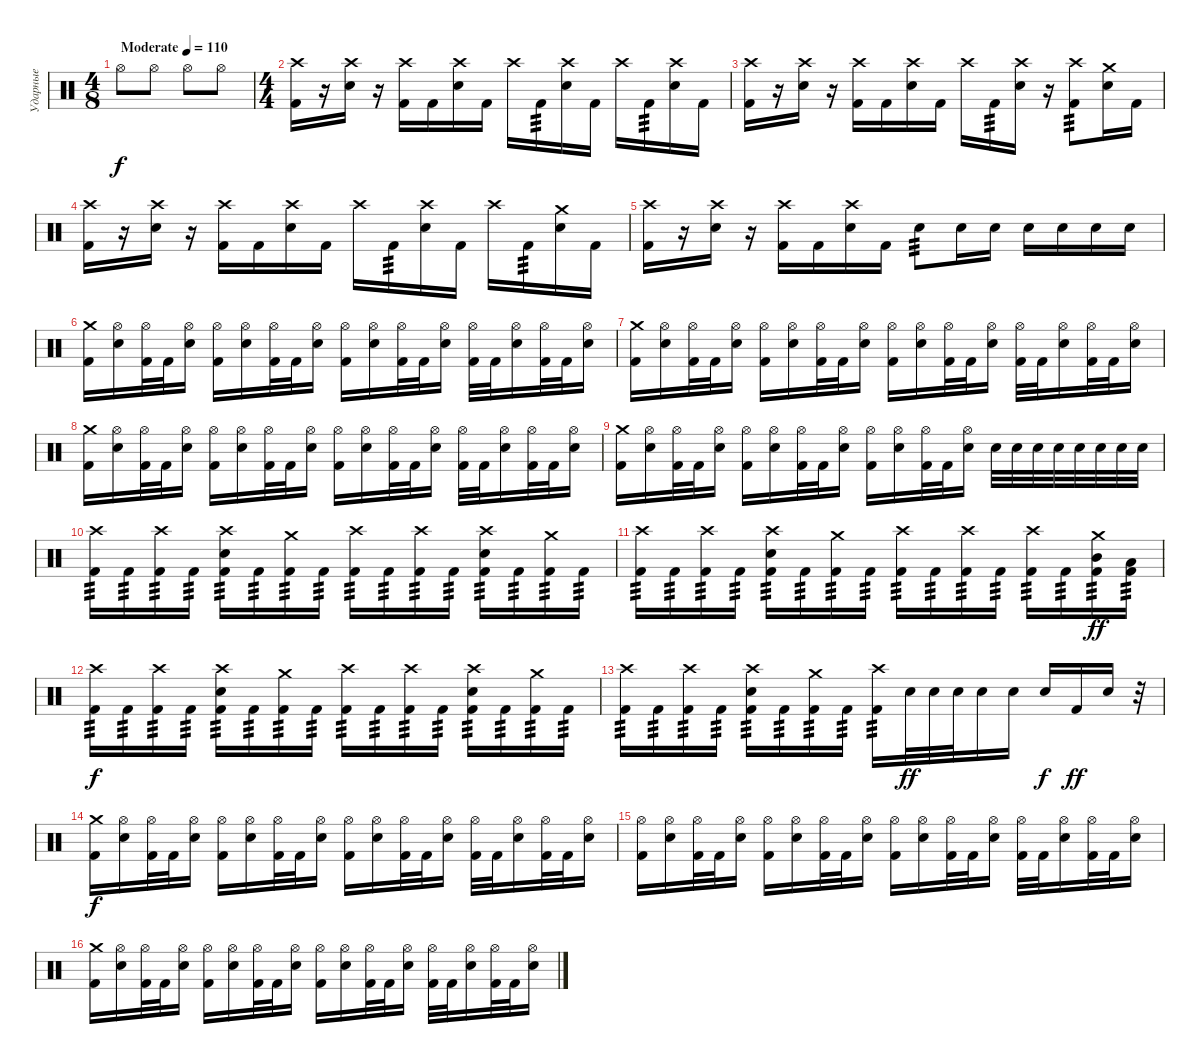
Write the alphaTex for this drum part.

\track ("Ударные" "Ударные") {instrument percussion}
\staff {score}
\articulation defaults
\ts (4 8)
\tempo (110 "Moderate")
\clef neutral
\ks c "Hi-Hat (open)".8{dy f} "Hi-Hat (open)".8 "Hi-Hat (open)".8 "Hi-Hat (open)".8
|
\ts (4 4)
("Crash high (hit)" "Kick (hit) 2").16 r.16 ("Crash high (hit)" "Snare (hit) 2").16 r.16 ("Crash high (hit)" "Kick (hit) 2").16 "Kick (hit) 2".16 ("Crash high (hit)" "Snare (hit) 2").16 "Kick (hit) 2".16 "Crash high (hit)".16 "Kick (hit) 2".16{tp 3} ("Crash high (hit)" "Snare (hit) 2").16 "Kick (hit) 2".16 "Crash high (hit)".16 "Kick (hit) 2".16{tp 3} ("Crash high (hit)" "Snare (hit) 2").16 "Kick (hit) 2".16 |
("Crash high (hit)" "Kick (hit) 2").16 r.16 ("Crash high (hit)" "Snare (hit) 2").16 r.16 ("Crash high (hit)" "Kick (hit) 2").16 "Kick (hit) 2".16 ("Crash high (hit)" "Snare (hit) 2").16 "Kick (hit) 2".16 "Crash high (hit)".16 "Kick (hit) 2".16{tp 3} ("Crash high (hit)" "Snare (hit) 2").16 r.16 ("Crash high (hit)" "Kick (hit) 2").8{tp 3} ("Crash medium (hit)" "Snare (hit) 2").16 "Kick (hit) 2".16 |
("Crash high (hit)" "Kick (hit) 2").16 r.16 ("Crash high (hit)" "Snare (hit) 2").16 r.16 ("Crash high (hit)" "Kick (hit) 2").16 "Kick (hit) 2".16 ("Crash high (hit)" "Snare (hit) 2").16 "Kick (hit) 2".16 "Crash high (hit)".16 "Kick (hit) 2".16{tp 3} ("Crash high (hit)" "Snare (hit) 2").16 "Kick (hit) 2".16 "Crash high (hit)".16 "Kick (hit) 2".16{tp 3} ("Crash medium (hit)" "Snare (hit) 2").16 "Kick (hit) 2".16 |
("Crash high (hit)" "Kick (hit) 2").16 r.16 ("Crash high (hit)" "Snare (hit) 2").16 r.16 ("Crash high (hit)" "Kick (hit) 2").16 "Kick (hit) 2".16 ("Crash high (hit)" "Snare (hit) 2").16 "Kick (hit) 2".16 "Snare (hit) 2".8{tp 3} "Snare (hit) 2".16 "Snare (hit) 2".16 "Snare (hit) 2".16 "Snare (hit) 2".16 "Snare (hit) 2".16 "Snare (hit) 2".16 |
("Crash medium (hit)" "Kick (hit) 2").16 ("Hi-Hat (open)" "Snare (hit) 2").16 ("Hi-Hat (open)" "Kick (hit) 2").32 "Kick (hit) 2".32 ("Hi-Hat (open)" "Snare (hit) 2").16 ("Hi-Hat (open)" "Kick (hit) 2").16 ("Hi-Hat (open)" "Snare (hit) 2").16 ("Hi-Hat (open)" "Kick (hit) 2").32 "Kick (hit) 2".32 ("Hi-Hat (open)" "Snare (hit) 2").16 ("Hi-Hat (open)" "Kick (hit) 2").16 ("Hi-Hat (open)" "Snare (hit) 2").16 ("Hi-Hat (open)" "Kick (hit) 2").32 "Kick (hit) 2".32 ("Hi-Hat (open)" "Snare (hit) 2").16 ("Hi-Hat (open)" "Kick (hit) 2").32 "Kick (hit) 2".32 ("Hi-Hat (open)" "Snare (hit) 2").16 ("Hi-Hat (open)" "Kick (hit) 2").32 "Kick (hit) 2".32 ("Hi-Hat (open)" "Snare (hit) 2").16 |
("Crash medium (hit)" "Kick (hit) 2").16 ("Hi-Hat (open)" "Snare (hit) 2").16 ("Hi-Hat (open)" "Kick (hit) 2").32 "Kick (hit) 2".32 ("Hi-Hat (open)" "Snare (hit) 2").16 ("Hi-Hat (open)" "Kick (hit) 2").16 ("Hi-Hat (open)" "Snare (hit) 2").16 ("Hi-Hat (open)" "Kick (hit) 2").32 "Kick (hit) 2".32 ("Hi-Hat (open)" "Snare (hit) 2").16 ("Hi-Hat (open)" "Kick (hit) 2").16 ("Hi-Hat (open)" "Snare (hit) 2").16 ("Hi-Hat (open)" "Kick (hit) 2").32 "Kick (hit) 2".32 ("Hi-Hat (open)" "Snare (hit) 2").16 ("Hi-Hat (open)" "Kick (hit) 2").32 "Kick (hit) 2".32 ("Hi-Hat (open)" "Snare (hit) 2").16 ("Hi-Hat (open)" "Kick (hit) 2").32 "Kick (hit) 2".32 ("Hi-Hat (open)" "Snare (hit) 2").16 |
("Crash medium (hit)" "Kick (hit) 2").16 ("Hi-Hat (open)" "Snare (hit) 2").16 ("Hi-Hat (open)" "Kick (hit) 2").32 "Kick (hit) 2".32 ("Hi-Hat (open)" "Snare (hit) 2").16 ("Hi-Hat (open)" "Kick (hit) 2").16 ("Hi-Hat (open)" "Snare (hit) 2").16 ("Hi-Hat (open)" "Kick (hit) 2").32 "Kick (hit) 2".32 ("Hi-Hat (open)" "Snare (hit) 2").16 ("Hi-Hat (open)" "Kick (hit) 2").16 ("Hi-Hat (open)" "Snare (hit) 2").16 ("Hi-Hat (open)" "Kick (hit) 2").32 "Kick (hit) 2".32 ("Hi-Hat (open)" "Snare (hit) 2").16 ("Hi-Hat (open)" "Kick (hit) 2").32 "Kick (hit) 2".32 ("Hi-Hat (open)" "Snare (hit) 2").16 ("Hi-Hat (open)" "Kick (hit) 2").32 "Kick (hit) 2".32 ("Hi-Hat (open)" "Snare (hit) 2").16 |
("Crash medium (hit)" "Kick (hit) 2").16 ("Hi-Hat (open)" "Snare (hit) 2").16 ("Hi-Hat (open)" "Kick (hit) 2").32 "Kick (hit) 2".32 ("Hi-Hat (open)" "Snare (hit) 2").16 ("Hi-Hat (open)" "Kick (hit) 2").16 ("Hi-Hat (open)" "Snare (hit) 2").16 ("Hi-Hat (open)" "Kick (hit) 2").32 "Kick (hit) 2".32 ("Hi-Hat (open)" "Snare (hit) 2").16 ("Hi-Hat (open)" "Kick (hit) 2").16 ("Hi-Hat (open)" "Snare (hit) 2").16 ("Hi-Hat (open)" "Kick (hit) 2").32 "Kick (hit) 2".32 ("Hi-Hat (open)" "Snare (hit) 2").16 "Snare (hit) 2".32 "Snare (hit) 2".32 "Snare (hit) 2".32 "Snare (hit) 2".32 "Snare (hit) 2".32 "Snare (hit) 2".32 "Snare (hit) 2".32 "Snare (hit) 2".32 |
("Crash high (hit)" "Kick (hit) 2").16{tp 3} "Kick (hit) 2".16{tp 3} ("Crash high (hit)" "Kick (hit) 2").16{tp 3} "Kick (hit) 2".16{tp 3} ("Crash high (hit)" "Snare (hit) 2" "Kick (hit) 2").16{tp 3} "Kick (hit) 2".16{tp 3} ("Crash medium (hit)" "Kick (hit) 2").16{tp 3} "Kick (hit) 2".16{tp 3} ("Crash high (hit)" "Kick (hit) 2").16{tp 3} "Kick (hit) 2".16{tp 3} ("Crash high (hit)" "Kick (hit) 2").16{tp 3} "Kick (hit) 2".16{tp 3} ("Crash high (hit)" "Snare (hit) 2" "Kick (hit) 2").16{tp 3} "Kick (hit) 2".16{tp 3} ("Crash medium (hit)" "Kick (hit) 2").16{tp 3} "Kick (hit) 2".16{tp 3} |
("Crash high (hit)" "Kick (hit) 2").16{tp 3} "Kick (hit) 2".16{tp 3} ("Crash high (hit)" "Kick (hit) 2").16{tp 3} "Kick (hit) 2".16{tp 3} ("Crash high (hit)" "Snare (hit) 2" "Kick (hit) 2").16{tp 3} "Kick (hit) 2".16{tp 3} ("Crash medium (hit)" "Kick (hit) 2").16{tp 3} "Kick (hit) 2".16{tp 3} ("Crash high (hit)" "Kick (hit) 2").16{tp 3} "Kick (hit) 2".16{tp 3} ("Crash high (hit)" "Kick (hit) 2").16{tp 3} "Kick (hit) 2".16{tp 3} ("Crash high (hit)" "Kick (hit) 2").16{tp 3} "Kick (hit) 2".16{tp 3} ("Crash medium (hit)" "Mid Tom (hit)" "Kick (hit) 2").16{tp 3 dy ff} ("Low Tom (hit)" "Kick (hit) 2").16{tp 3} |
("Crash high (hit)" "Kick (hit) 2").16{tp 3 dy f} "Kick (hit) 2".16{tp 3} ("Crash high (hit)" "Kick (hit) 2").16{tp 3} "Kick (hit) 2".16{tp 3} ("Crash high (hit)" "Snare (hit) 2" "Kick (hit) 2").16{tp 3} "Kick (hit) 2".16{tp 3} ("Crash medium (hit)" "Kick (hit) 2").16{tp 3} "Kick (hit) 2".16{tp 3} ("Crash high (hit)" "Kick (hit) 2").16{tp 3} "Kick (hit) 2".16{tp 3} ("Crash high (hit)" "Kick (hit) 2").16{tp 3} "Kick (hit) 2".16{tp 3} ("Crash high (hit)" "Snare (hit) 2" "Kick (hit) 2").16{tp 3} "Kick (hit) 2".16{tp 3} ("Crash medium (hit)" "Kick (hit) 2").16{tp 3} "Kick (hit) 2".16{tp 3} |
("Crash high (hit)" "Kick (hit) 2").16{tp 3} "Kick (hit) 2".16{tp 3} ("Crash high (hit)" "Kick (hit) 2").16{tp 3} "Kick (hit) 2".16{tp 3} ("Crash high (hit)" "Snare (hit) 2" "Kick (hit) 2").16{tp 3} "Kick (hit) 2".16{tp 3} ("Crash medium (hit)" "Kick (hit) 2").16{tp 3} "Kick (hit) 2".16{tp 3} ("Crash high (hit)" "Kick (hit) 2").16{tp 3} "Snare (hit) 2".32{dy ff} "Snare (hit) 2".32 "Snare (hit) 2".32 "Snare (hit) 2".16 "Snare (hit) 2".16 "Snare (hit) 2".16{dy f} "Kick (hit) 2".16{dy ff} "Snare (hit) 2".16 r.32 |
("Crash medium (hit)" "Kick (hit) 2").16{dy f} ("Hi-Hat (open)" "Snare (hit) 2").16 ("Hi-Hat (open)" "Kick (hit) 2").32 "Kick (hit) 2".32 ("Hi-Hat (open)" "Snare (hit) 2").16 ("Hi-Hat (open)" "Kick (hit) 2").16 ("Hi-Hat (open)" "Snare (hit) 2").16 ("Hi-Hat (open)" "Kick (hit) 2").32 "Kick (hit) 2".32 ("Hi-Hat (open)" "Snare (hit) 2").16 ("Hi-Hat (open)" "Kick (hit) 2").16 ("Hi-Hat (open)" "Snare (hit) 2").16 ("Hi-Hat (open)" "Kick (hit) 2").32 "Kick (hit) 2".32 ("Hi-Hat (open)" "Snare (hit) 2").16 ("Hi-Hat (open)" "Kick (hit) 2").32 "Kick (hit) 2".32 ("Hi-Hat (open)" "Snare (hit) 2").16 ("Hi-Hat (open)" "Kick (hit) 2").32 "Kick (hit) 2".32 ("Hi-Hat (open)" "Snare (hit) 2").16 |
("Hi-Hat (open)" "Kick (hit) 2").16 ("Hi-Hat (open)" "Snare (hit) 2").16 ("Hi-Hat (open)" "Kick (hit) 2").32 "Kick (hit) 2".32 ("Hi-Hat (open)" "Snare (hit) 2").16 ("Hi-Hat (open)" "Kick (hit) 2").16 ("Hi-Hat (open)" "Snare (hit) 2").16 ("Hi-Hat (open)" "Kick (hit) 2").32 "Kick (hit) 2".32 ("Hi-Hat (open)" "Snare (hit) 2").16 ("Hi-Hat (open)" "Kick (hit) 2").16 ("Hi-Hat (open)" "Snare (hit) 2").16 ("Hi-Hat (open)" "Kick (hit) 2").32 "Kick (hit) 2".32 ("Hi-Hat (open)" "Snare (hit) 2").16 ("Hi-Hat (open)" "Kick (hit) 2").32 "Kick (hit) 2".32 ("Hi-Hat (open)" "Snare (hit) 2").16 ("Hi-Hat (open)" "Kick (hit) 2").32 "Kick (hit) 2".32 ("Hi-Hat (open)" "Snare (hit) 2").16 |
("Crash medium (hit)" "Kick (hit) 2").16 ("Hi-Hat (open)" "Snare (hit) 2").16 ("Hi-Hat (open)" "Kick (hit) 2").32 "Kick (hit) 2".32 ("Hi-Hat (open)" "Snare (hit) 2").16 ("Hi-Hat (open)" "Kick (hit) 2").16 ("Hi-Hat (open)" "Snare (hit) 2").16 ("Hi-Hat (open)" "Kick (hit) 2").32 "Kick (hit) 2".32 ("Hi-Hat (open)" "Snare (hit) 2").16 ("Hi-Hat (open)" "Kick (hit) 2").16 ("Hi-Hat (open)" "Snare (hit) 2").16 ("Hi-Hat (open)" "Kick (hit) 2").32 "Kick (hit) 2".32 ("Hi-Hat (open)" "Snare (hit) 2").16 ("Hi-Hat (open)" "Kick (hit) 2").32 "Kick (hit) 2".32 ("Hi-Hat (open)" "Snare (hit) 2").16 ("Hi-Hat (open)" "Kick (hit) 2").32 "Kick (hit) 2".32 ("Hi-Hat (open)" "Snare (hit) 2").16
